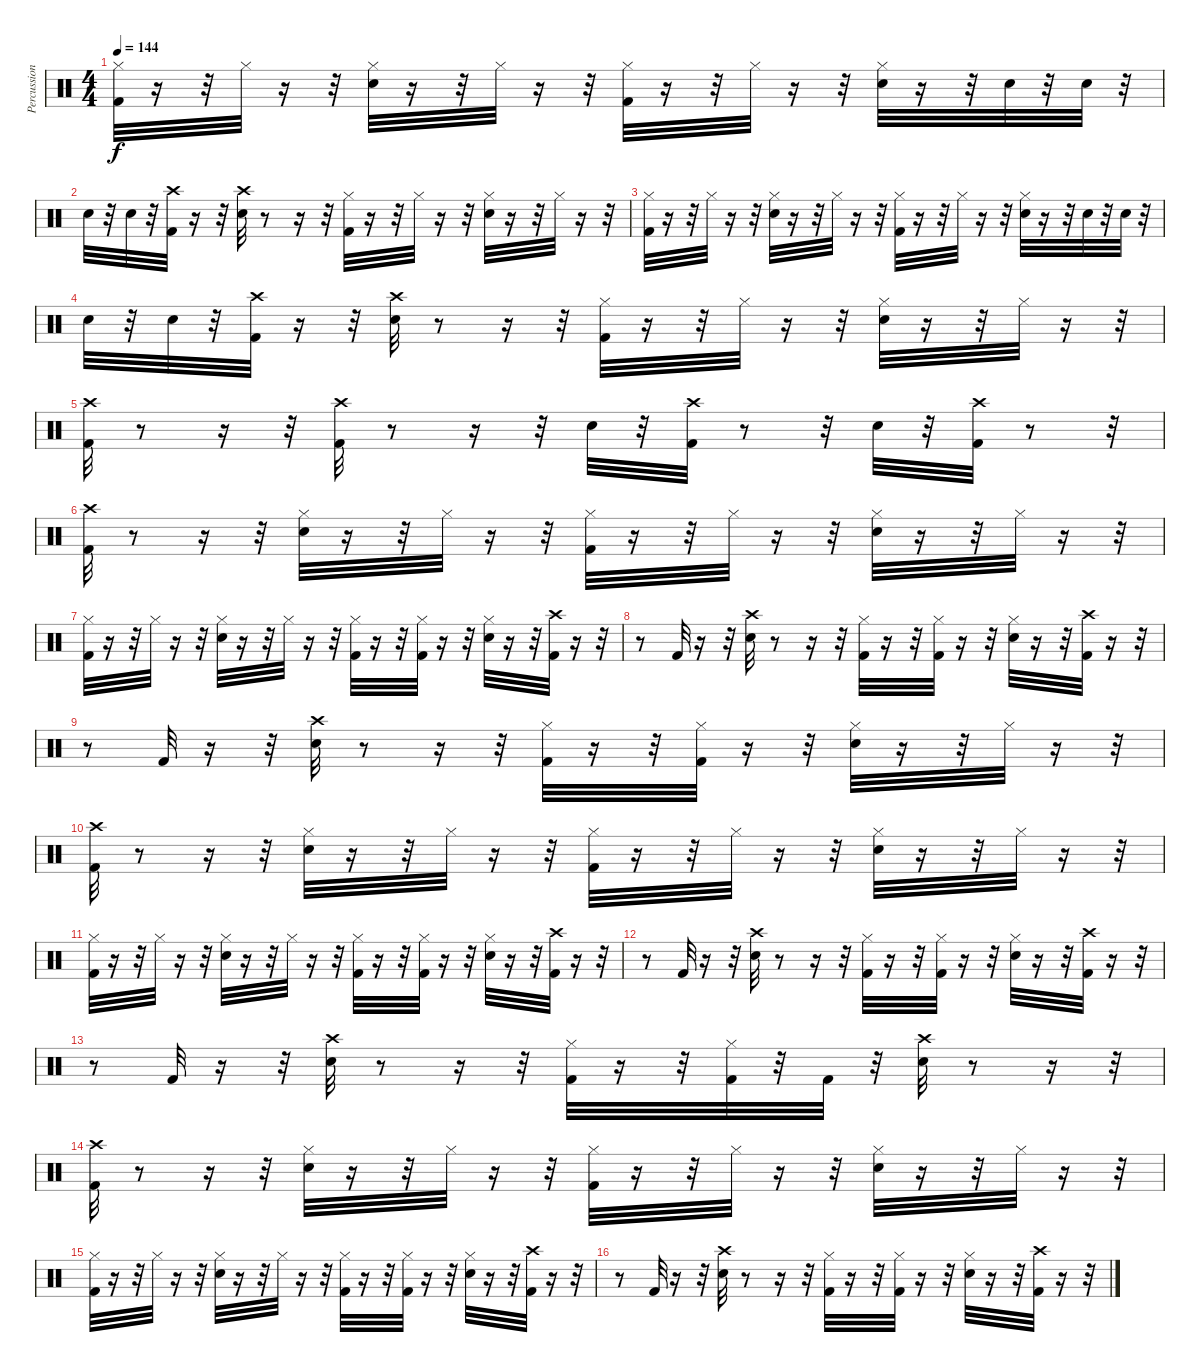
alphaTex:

\track ("Percussion" "Percussion") {instrument percussion}
\staff {score}
\articulation defaults
\ts (4 4)
\tempo 144
\clef neutral
\ks c
("Kick (hit) 2" "Hi-Hat (closed)").32{dy f} r.16 r.32 "Hi-Hat (closed)".32 r.16 r.32 ("Snare (hit) 2" "Hi-Hat (closed)").32 r.16 r.32 "Hi-Hat (closed)".32 r.16 r.32 ("Kick (hit) 2" "Hi-Hat (closed)").32 r.16 r.32 "Hi-Hat (closed)".32 r.16 r.32 ("Snare (hit) 2" "Hi-Hat (closed)").32 r.16 r.32 "Snare (hit) 2".32 r.32 "Snare (hit) 2".32 r.32 |
"Snare (hit) 2".32 r.32 "Snare (hit) 2".32 r.32 ("Kick (hit) 2" "Crash high (hit)").32 r.16 r.32 ("Snare (hit) 2" "Crash high (hit)").32 r.8 r.16 r.32 ("Kick (hit) 2" "Hi-Hat (closed)").32 r.16 r.32 "Hi-Hat (closed)".32 r.16 r.32 ("Snare (hit) 2" "Hi-Hat (closed)").32 r.16 r.32 "Hi-Hat (closed)".32 r.16 r.32 |
("Kick (hit) 2" "Hi-Hat (closed)").32 r.16 r.32 "Hi-Hat (closed)".32 r.16 r.32 ("Snare (hit) 2" "Hi-Hat (closed)").32 r.16 r.32 "Hi-Hat (closed)".32 r.16 r.32 ("Kick (hit) 2" "Hi-Hat (closed)").32 r.16 r.32 "Hi-Hat (closed)".32 r.16 r.32 ("Snare (hit) 2" "Hi-Hat (closed)").32 r.16 r.32 "Snare (hit) 2".32 r.32 "Snare (hit) 2".32 r.32 |
"Snare (hit) 2".32 r.32 "Snare (hit) 2".32 r.32 ("Crash high (hit)" "Kick (hit) 2").32 r.16 r.32 ("Crash high (hit)" "Snare (hit) 2").32 r.8 r.16 r.32 ("Kick (hit) 2" "Hi-Hat (closed)").32 r.16 r.32 "Hi-Hat (closed)".32 r.16 r.32 ("Snare (hit) 2" "Hi-Hat (closed)").32 r.16 r.32 "Hi-Hat (closed)".32 r.16 r.32 |
("Kick (hit) 2" "Crash high (hit)").32 r.8 r.16 r.32 ("Kick (hit) 2" "Crash high (hit)").32 r.8 r.16 r.32 "Snare (hit) 2".32 r.32 ("Kick (hit) 2" "Crash high (hit)").32 r.8 r.32 "Snare (hit) 2".32 r.32 ("Kick (hit) 2" "Crash high (hit)").32 r.8 r.32 |
("Kick (hit) 2" "Crash high (hit)").32 r.8 r.16 r.32 ("Snare (hit) 2" "Hi-Hat (closed)").32 r.16 r.32 "Hi-Hat (closed)".32 r.16 r.32 ("Kick (hit) 2" "Hi-Hat (closed)").32 r.16 r.32 "Hi-Hat (closed)".32 r.16 r.32 ("Snare (hit) 2" "Hi-Hat (closed)").32 r.16 r.32 "Hi-Hat (closed)".32 r.16 r.32 |
("Kick (hit) 2" "Hi-Hat (closed)").32 r.16 r.32 "Hi-Hat (closed)".32 r.16 r.32 ("Snare (hit) 2" "Hi-Hat (closed)").32 r.16 r.32 "Hi-Hat (closed)".32 r.16 r.32 ("Kick (hit) 2" "Hi-Hat (closed)").32 r.16 r.32 ("Kick (hit) 2" "Hi-Hat (closed)").32 r.16 r.32 ("Snare (hit) 2" "Hi-Hat (closed)").32 r.16 r.32 ("Kick (hit) 2" "Crash high (hit)").32 r.16 r.32 |
r.8 "Kick (hit) 2".32 r.16 r.32 ("Crash high (hit)" "Snare (hit) 2").32 r.8 r.16 r.32 ("Kick (hit) 2" "Hi-Hat (closed)").32 r.16 r.32 ("Kick (hit) 2" "Hi-Hat (closed)").32 r.16 r.32 ("Snare (hit) 2" "Hi-Hat (closed)").32 r.16 r.32 ("Kick (hit) 2" "Crash high (hit)").32 r.16 r.32 |
r.8 "Kick (hit) 2".32 r.16 r.32 ("Crash high (hit)" "Snare (hit) 2").32 r.8 r.16 r.32 ("Kick (hit) 2" "Hi-Hat (closed)").32 r.16 r.32 ("Kick (hit) 2" "Hi-Hat (closed)").32 r.16 r.32 ("Snare (hit) 2" "Hi-Hat (closed)").32 r.16 r.32 "Hi-Hat (closed)".32 r.16 r.32 |
("Kick (hit) 2" "Crash high (hit)").32 r.8 r.16 r.32 ("Snare (hit) 2" "Hi-Hat (closed)").32 r.16 r.32 "Hi-Hat (closed)".32 r.16 r.32 ("Kick (hit) 2" "Hi-Hat (closed)").32 r.16 r.32 "Hi-Hat (closed)".32 r.16 r.32 ("Snare (hit) 2" "Hi-Hat (closed)").32 r.16 r.32 "Hi-Hat (closed)".32 r.16 r.32 |
("Kick (hit) 2" "Hi-Hat (closed)").32 r.16 r.32 "Hi-Hat (closed)".32 r.16 r.32 ("Snare (hit) 2" "Hi-Hat (closed)").32 r.16 r.32 "Hi-Hat (closed)".32 r.16 r.32 ("Kick (hit) 2" "Hi-Hat (closed)").32 r.16 r.32 ("Kick (hit) 2" "Hi-Hat (closed)").32 r.16 r.32 ("Snare (hit) 2" "Hi-Hat (closed)").32 r.16 r.32 ("Kick (hit) 2" "Crash high (hit)").32 r.16 r.32 |
r.8 "Kick (hit) 2".32 r.16 r.32 ("Crash high (hit)" "Snare (hit) 2").32 r.8 r.16 r.32 ("Kick (hit) 2" "Hi-Hat (closed)").32 r.16 r.32 ("Kick (hit) 2" "Hi-Hat (closed)").32 r.16 r.32 ("Snare (hit) 2" "Hi-Hat (closed)").32 r.16 r.32 ("Kick (hit) 2" "Crash high (hit)").32 r.16 r.32 |
r.8 "Kick (hit) 2".32 r.16 r.32 ("Crash high (hit)" "Snare (hit) 2").32 r.8 r.16 r.32 ("Kick (hit) 2" "Hi-Hat (closed)").32 r.16 r.32 ("Kick (hit) 2" "Hi-Hat (closed)").32 r.32 "Kick (hit) 2".32 r.32 ("Crash high (hit)" "Snare (hit) 2").32 r.8 r.16 r.32 |
("Kick (hit) 2" "Crash high (hit)").32 r.8 r.16 r.32 ("Snare (hit) 2" "Hi-Hat (closed)").32 r.16 r.32 "Hi-Hat (closed)".32 r.16 r.32 ("Kick (hit) 2" "Hi-Hat (closed)").32 r.16 r.32 "Hi-Hat (closed)".32 r.16 r.32 ("Snare (hit) 2" "Hi-Hat (closed)").32 r.16 r.32 "Hi-Hat (closed)".32 r.16 r.32 |
("Kick (hit) 2" "Hi-Hat (closed)").32 r.16 r.32 "Hi-Hat (closed)".32 r.16 r.32 ("Snare (hit) 2" "Hi-Hat (closed)").32 r.16 r.32 "Hi-Hat (closed)".32 r.16 r.32 ("Kick (hit) 2" "Hi-Hat (closed)").32 r.16 r.32 ("Kick (hit) 2" "Hi-Hat (closed)").32 r.16 r.32 ("Snare (hit) 2" "Hi-Hat (closed)").32 r.16 r.32 ("Kick (hit) 2" "Crash high (hit)").32 r.16 r.32 |
r.8 "Kick (hit) 2".32 r.16 r.32 ("Crash high (hit)" "Snare (hit) 2").32 r.8 r.16 r.32 ("Kick (hit) 2" "Hi-Hat (closed)").32 r.16 r.32 ("Kick (hit) 2" "Hi-Hat (closed)").32 r.16 r.32 ("Snare (hit) 2" "Hi-Hat (closed)").32 r.16 r.32 ("Kick (hit) 2" "Crash high (hit)").32 r.16 r.32
